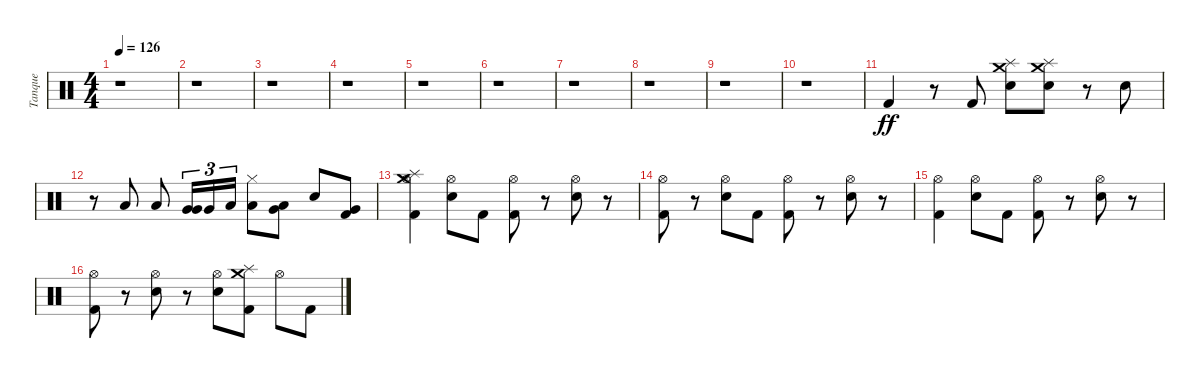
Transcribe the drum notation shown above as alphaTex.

\track ("Tanque" "Tanque") {instrument percussion}
\staff {score}
\articulation defaults
\ts (4 4)
\tempo 126
\clef neutral
\ks c
r.1{dy ff} |
r.1 |
r.1 |
r.1 |
r.1 |
r.1 |
r.1 |
r.1 |
r.1 |
r.1 |
"Kick (hit) 2".4 r.8 "Kick (hit) 2".8 ("Crash medium (hit)" "Splash (hit)" "Snare (hit) 2").8 ("Snare (hit) 2" "Crash medium (hit)" "Splash (hit)").8 r.8 "Snare (hit) 2".8 |
r.8 "Low Tom (hit)".8 "Low Tom (hit)".8 ("Very Low Tom (hit)" "Very Low Tom (hit)").16{tu (3 2)} "Very Low Tom (hit)".16{tu (3 2)} "Low Floor Tom (hit)".16{tu (3 2)} ("Low Tom (hit)" "Hi-Hat (closed)").8 ("Low Floor Tom (hit)" "Very Low Tom (hit)").8 "Snare (hit) 2".8 ("Kick (hit) 2" "Very Low Tom (hit)").8 |
("Kick (hit) 2" "Splash (hit)" "Crash medium (hit)" "Hi-Hat (open)").4 ("Snare (hit) 2" "Hi-Hat (open)").8 "Kick (hit) 2".8 ("Kick (hit) 2" "Hi-Hat (open)").8 r.8 ("Snare (hit) 2" "Hi-Hat (open)").8 r.8 |
("Kick (hit) 2" "Hi-Hat (open)").8 r.8 ("Snare (hit) 2" "Hi-Hat (open)").8 "Kick (hit) 2".8 ("Kick (hit) 2" "Hi-Hat (open)").8 r.8 ("Snare (hit) 2" "Hi-Hat (open)").8 r.8 |
("Kick (hit) 2" "Hi-Hat (open)").4 ("Snare (hit) 2" "Hi-Hat (open)").8 "Kick (hit) 2".8 ("Kick (hit) 2" "Hi-Hat (open)").8 r.8 ("Snare (hit) 2" "Hi-Hat (open)").8 r.8 |
("Kick (hit) 2" "Hi-Hat (open)").8 r.8 ("Snare (hit) 2" "Hi-Hat (open)").8 r.8 ("Snare (hit) 2" "Hi-Hat (open)").8 ("Splash (hit)" "Crash medium (hit)" "Kick (hit) 2").8 "Hi-Hat (open)".8 "Kick (hit) 2".8
